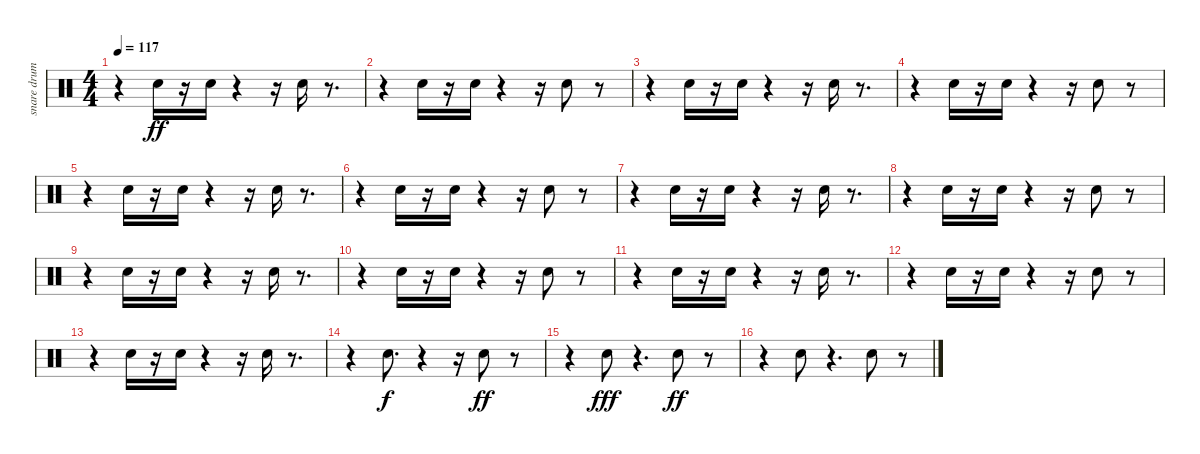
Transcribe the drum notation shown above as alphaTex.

\track ("snare drum" "snare drum") {instrument percussion}
\staff {score}
\articulation defaults
\ts (4 4)
\tempo 117
\clef neutral
\ks c
r.4{dy ff} "Snare (hit) 2".16 r.16 "Snare (hit) 2".16 r.4 r.16 "Snare (hit) 2".16 r.8{d} |
r.4 "Snare (hit) 2".16 r.16 "Snare (hit) 2".16 r.4 r.16 "Snare (hit) 2".8 r.8 |
r.4 "Snare (hit) 2".16 r.16 "Snare (hit) 2".16 r.4 r.16 "Snare (hit) 2".16 r.8{d} |
r.4 "Snare (hit) 2".16 r.16 "Snare (hit) 2".16 r.4 r.16 "Snare (hit) 2".8 r.8 |
r.4 "Snare (hit) 2".16 r.16 "Snare (hit) 2".16 r.4 r.16 "Snare (hit) 2".16 r.8{d} |
r.4 "Snare (hit) 2".16 r.16 "Snare (hit) 2".16 r.4 r.16 "Snare (hit) 2".8 r.8 |
r.4 "Snare (hit) 2".16 r.16 "Snare (hit) 2".16 r.4 r.16 "Snare (hit) 2".16 r.8{d} |
r.4 "Snare (hit) 2".16 r.16 "Snare (hit) 2".16 r.4 r.16 "Snare (hit) 2".8 r.8 |
r.4 "Snare (hit) 2".16 r.16 "Snare (hit) 2".16 r.4 r.16 "Snare (hit) 2".16 r.8{d} |
r.4 "Snare (hit) 2".16 r.16 "Snare (hit) 2".16 r.4 r.16 "Snare (hit) 2".8 r.8 |
r.4 "Snare (hit) 2".16 r.16 "Snare (hit) 2".16 r.4 r.16 "Snare (hit) 2".16 r.8{d} |
r.4 "Snare (hit) 2".16 r.16 "Snare (hit) 2".16 r.4 r.16 "Snare (hit) 2".8 r.8 |
r.4 "Snare (hit) 2".16 r.16 "Snare (hit) 2".16 r.4 r.16 "Snare (hit) 2".16 r.8{d} |
r.4 "Snare (hit) 2".8{d dy f} r.4 r.16 "Snare (hit) 2".8{dy ff} r.8 |
r.4 "Snare (hit) 2".8{dy fff} r.4{d} "Snare (hit) 2".8{dy ff} r.8 |
r.4 "Snare (hit) 2".8 r.4{d} "Snare (hit) 2".8 r.8
